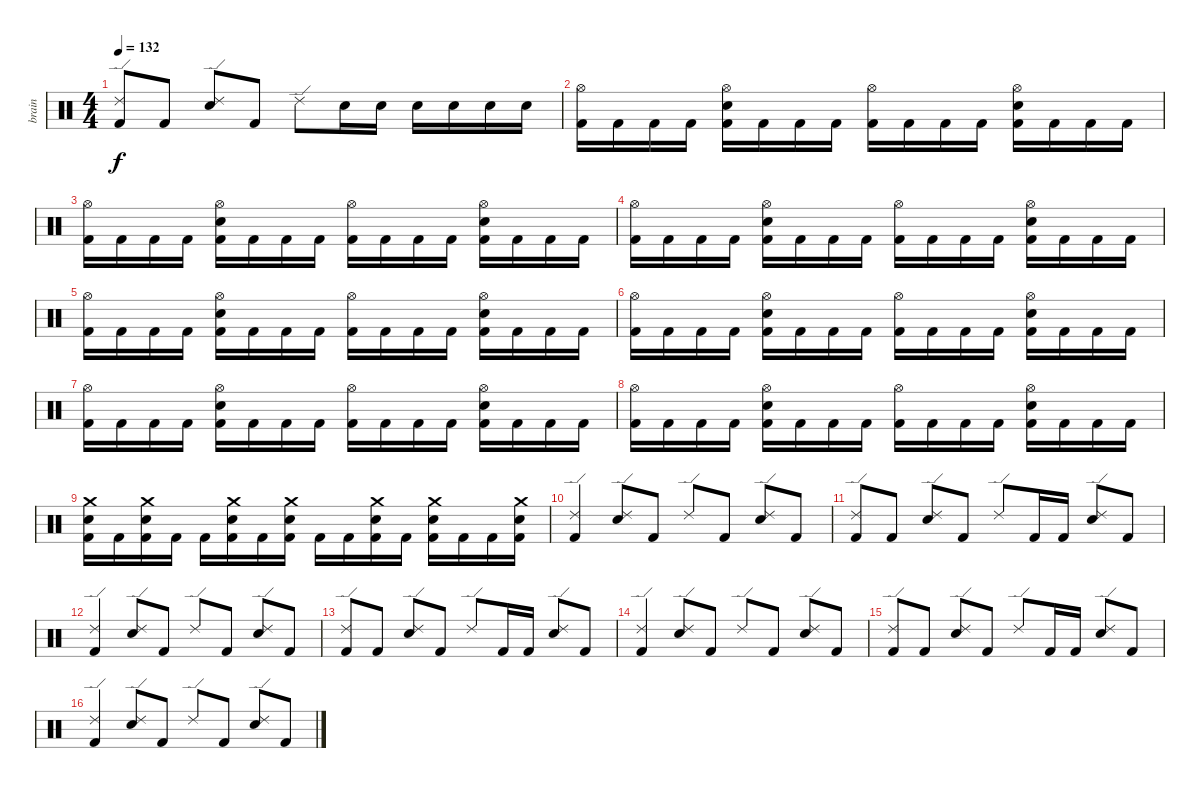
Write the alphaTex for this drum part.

\track ("brain" "brain") {instrument percussion}
\staff {score}
\articulation defaults
\ts (4 4)
\tempo 132
\clef neutral
\ks c
("Ride (edge) 2" "Kick (hit) 2").8{dy f} "Kick (hit) 2".8 ("Ride (edge) 2" "Electric Snare (hit)").8 "Kick (hit) 2".8 "Ride (edge) 2".8 "Electric Snare (hit)".16 "Electric Snare (hit)".16 "Electric Snare (hit)".16 "Electric Snare (hit)".16 "Electric Snare (hit)".16 "Electric Snare (hit)".16 |
("Hi-Hat (open)" "Kick (hit) 2").16 "Kick (hit) 2".16 "Kick (hit) 2".16 "Kick (hit) 2".16 ("Hi-Hat (open)" "Electric Snare (hit)" "Kick (hit) 2").16 "Kick (hit) 2".16 "Kick (hit) 2".16 "Kick (hit) 2".16 ("Hi-Hat (open)" "Kick (hit) 2").16 "Kick (hit) 2".16 "Kick (hit) 2".16 "Kick (hit) 2".16 ("Hi-Hat (open)" "Electric Snare (hit)" "Kick (hit) 2").16 "Kick (hit) 2".16 "Kick (hit) 2".16 "Kick (hit) 2".16 |
("Hi-Hat (open)" "Kick (hit) 2").16 "Kick (hit) 2".16 "Kick (hit) 2".16 "Kick (hit) 2".16 ("Hi-Hat (open)" "Electric Snare (hit)" "Kick (hit) 2").16 "Kick (hit) 2".16 "Kick (hit) 2".16 "Kick (hit) 2".16 ("Hi-Hat (open)" "Kick (hit) 2").16 "Kick (hit) 2".16 "Kick (hit) 2".16 "Kick (hit) 2".16 ("Hi-Hat (open)" "Electric Snare (hit)" "Kick (hit) 2").16 "Kick (hit) 2".16 "Kick (hit) 2".16 "Kick (hit) 2".16 |
("Hi-Hat (open)" "Kick (hit) 2").16 "Kick (hit) 2".16 "Kick (hit) 2".16 "Kick (hit) 2".16 ("Hi-Hat (open)" "Electric Snare (hit)" "Kick (hit) 2").16 "Kick (hit) 2".16 "Kick (hit) 2".16 "Kick (hit) 2".16 ("Hi-Hat (open)" "Kick (hit) 2").16 "Kick (hit) 2".16 "Kick (hit) 2".16 "Kick (hit) 2".16 ("Hi-Hat (open)" "Electric Snare (hit)" "Kick (hit) 2").16 "Kick (hit) 2".16 "Kick (hit) 2".16 "Kick (hit) 2".16 |
("Hi-Hat (open)" "Kick (hit) 2").16 "Kick (hit) 2".16 "Kick (hit) 2".16 "Kick (hit) 2".16 ("Hi-Hat (open)" "Electric Snare (hit)" "Kick (hit) 2").16 "Kick (hit) 2".16 "Kick (hit) 2".16 "Kick (hit) 2".16 ("Hi-Hat (open)" "Kick (hit) 2").16 "Kick (hit) 2".16 "Kick (hit) 2".16 "Kick (hit) 2".16 ("Hi-Hat (open)" "Electric Snare (hit)" "Kick (hit) 2").16 "Kick (hit) 2".16 "Kick (hit) 2".16 "Kick (hit) 2".16 |
("Hi-Hat (open)" "Kick (hit) 2").16 "Kick (hit) 2".16 "Kick (hit) 2".16 "Kick (hit) 2".16 ("Hi-Hat (open)" "Electric Snare (hit)" "Kick (hit) 2").16 "Kick (hit) 2".16 "Kick (hit) 2".16 "Kick (hit) 2".16 ("Hi-Hat (open)" "Kick (hit) 2").16 "Kick (hit) 2".16 "Kick (hit) 2".16 "Kick (hit) 2".16 ("Hi-Hat (open)" "Electric Snare (hit)" "Kick (hit) 2").16 "Kick (hit) 2".16 "Kick (hit) 2".16 "Kick (hit) 2".16 |
("Hi-Hat (open)" "Kick (hit) 2").16 "Kick (hit) 2".16 "Kick (hit) 2".16 "Kick (hit) 2".16 ("Hi-Hat (open)" "Electric Snare (hit)" "Kick (hit) 2").16 "Kick (hit) 2".16 "Kick (hit) 2".16 "Kick (hit) 2".16 ("Hi-Hat (open)" "Kick (hit) 2").16 "Kick (hit) 2".16 "Kick (hit) 2".16 "Kick (hit) 2".16 ("Hi-Hat (open)" "Electric Snare (hit)" "Kick (hit) 2").16 "Kick (hit) 2".16 "Kick (hit) 2".16 "Kick (hit) 2".16 |
("Hi-Hat (open)" "Kick (hit) 2").16 "Kick (hit) 2".16 "Kick (hit) 2".16 "Kick (hit) 2".16 ("Hi-Hat (open)" "Electric Snare (hit)" "Kick (hit) 2").16 "Kick (hit) 2".16 "Kick (hit) 2".16 "Kick (hit) 2".16 ("Hi-Hat (open)" "Kick (hit) 2").16 "Kick (hit) 2".16 "Kick (hit) 2".16 "Kick (hit) 2".16 ("Hi-Hat (open)" "Electric Snare (hit)" "Kick (hit) 2").16 "Kick (hit) 2".16 "Kick (hit) 2".16 "Kick (hit) 2".16 |
("Crash medium (hit)" "Electric Snare (hit)" "Kick (hit) 2").16 "Kick (hit) 2".16 ("Crash medium (hit)" "Electric Snare (hit)" "Kick (hit) 2").16 "Kick (hit) 2".16 "Kick (hit) 2".16 ("Crash medium (hit)" "Electric Snare (hit)" "Kick (hit) 2").16 "Kick (hit) 2".16 ("Crash medium (hit)" "Electric Snare (hit)" "Kick (hit) 2").16 "Kick (hit) 2".16 "Kick (hit) 2".16 ("Crash medium (hit)" "Electric Snare (hit)" "Kick (hit) 2").16 "Kick (hit) 2".16 ("Crash medium (hit)" "Electric Snare (hit)" "Kick (hit) 2").16 "Kick (hit) 2".16 "Kick (hit) 2".16 ("Crash medium (hit)" "Electric Snare (hit)" "Kick (hit) 2").16 |
("Ride (edge) 2" "Kick (hit) 2").4 ("Ride (edge) 2" "Electric Snare (hit)").8 "Kick (hit) 2".8 "Ride (edge) 2".8 "Kick (hit) 2".8 ("Ride (edge) 2" "Electric Snare (hit)").8 "Kick (hit) 2".8 |
("Ride (edge) 2" "Kick (hit) 2").8 "Kick (hit) 2".8 ("Ride (edge) 2" "Electric Snare (hit)").8 "Kick (hit) 2".8 "Ride (edge) 2".8 "Kick (hit) 2".16 "Kick (hit) 2".16 ("Ride (edge) 2" "Electric Snare (hit)").8 "Kick (hit) 2".8 |
("Ride (edge) 2" "Kick (hit) 2").4 ("Ride (edge) 2" "Electric Snare (hit)").8 "Kick (hit) 2".8 "Ride (edge) 2".8 "Kick (hit) 2".8 ("Ride (edge) 2" "Electric Snare (hit)").8 "Kick (hit) 2".8 |
("Ride (edge) 2" "Kick (hit) 2").8 "Kick (hit) 2".8 ("Ride (edge) 2" "Electric Snare (hit)").8 "Kick (hit) 2".8 "Ride (edge) 2".8 "Kick (hit) 2".16 "Kick (hit) 2".16 ("Ride (edge) 2" "Electric Snare (hit)").8 "Kick (hit) 2".8 |
("Ride (edge) 2" "Kick (hit) 2").4 ("Ride (edge) 2" "Electric Snare (hit)").8 "Kick (hit) 2".8 "Ride (edge) 2".8 "Kick (hit) 2".8 ("Ride (edge) 2" "Electric Snare (hit)").8 "Kick (hit) 2".8 |
("Ride (edge) 2" "Kick (hit) 2").8 "Kick (hit) 2".8 ("Ride (edge) 2" "Electric Snare (hit)").8 "Kick (hit) 2".8 "Ride (edge) 2".8 "Kick (hit) 2".16 "Kick (hit) 2".16 ("Ride (edge) 2" "Electric Snare (hit)").8 "Kick (hit) 2".8 |
("Ride (edge) 2" "Kick (hit) 2").4 ("Ride (edge) 2" "Electric Snare (hit)").8 "Kick (hit) 2".8 "Ride (edge) 2".8 "Kick (hit) 2".8 ("Ride (edge) 2" "Electric Snare (hit)").8 "Kick (hit) 2".8
